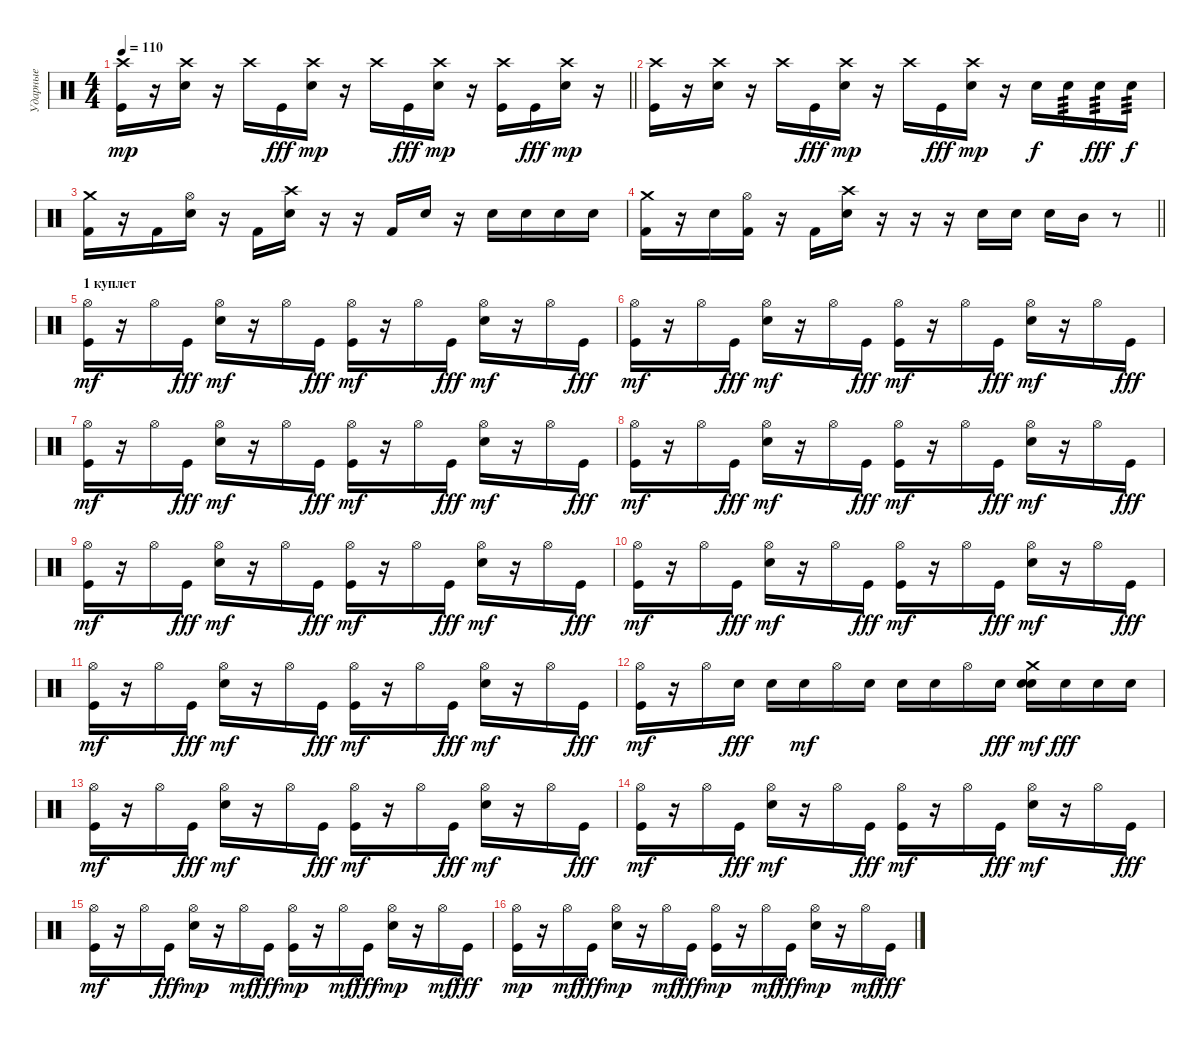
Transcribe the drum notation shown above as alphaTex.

\track ("Ударные" "Ударные") {instrument percussion}
\staff {score}
\articulation defaults
\ts (4 4)
\tempo 110
\clef neutral
\barLineRight lightlight
\ks c
("Kick (hit)" "Crash high (hit)").16{dy mp} r.16 ("Electric Snare (hit)" "Crash high (hit)").16 r.16 "Crash high (hit)".16 "Kick (hit)".16{dy fff} ("Electric Snare (hit)" "Crash high (hit)").16{dy mp} r.16 "Crash high (hit)".16 "Kick (hit)".16{dy fff} ("Electric Snare (hit)" "Crash high (hit)").16{dy mp} r.16 ("Kick (hit)" "Crash high (hit)").16 "Kick (hit)".16{dy fff} ("Electric Snare (hit)" "Crash high (hit)").16{dy mp} r.16 |
("Kick (hit)" "Crash high (hit)").16 r.16 ("Electric Snare (hit)" "Crash high (hit)").16 r.16 "Crash high (hit)".16 "Kick (hit)".16{dy fff} ("Electric Snare (hit)" "Crash high (hit)").16{dy mp} r.16 "Crash high (hit)".16 "Kick (hit)".16{dy fff} ("Electric Snare (hit)" "Crash high (hit)").16{dy mp} r.16 "Electric Snare (hit)".16{dy f} "Electric Snare (hit)".16{tp 3} "Electric Snare (hit)".16{tp 3 dy fff} "Electric Snare (hit)".16{tp 3 dy f} |
("Kick (hit) 2" "Crash medium (hit)").16 r.16 "Kick (hit) 2".16 ("Electric Snare (hit)" "Hi-Hat (open)").16 r.16 "Kick (hit) 2".16 ("Electric Snare (hit)" "Crash high (hit)").16 r.16 r.16 "Kick (hit) 2".16 "Electric Snare (hit)".16 r.16 "Electric Snare (hit)".16 "Electric Snare (hit)".16 "Electric Snare (hit)".16 "Electric Snare (hit)".16 |
\barLineRight lightlight
("Kick (hit) 2" "Crash medium (hit)").16 r.16 "Electric Snare (hit)".16 ("Kick (hit) 2" "Hi-Hat (open)").16 r.16 "Kick (hit) 2".16 ("Electric Snare (hit)" "Crash high (hit)").16 r.16 r.16 r.16 "Electric Snare (hit)".16 "Electric Snare (hit)".16 "Electric Snare (hit)".16 "Mid Tom (hit)".16 r.8 |
\section ("" "1 куплет")
("Kick (hit)" "Hi-Hat (open)").16{dy mf} r.16 "Hi-Hat (open)".16 "Kick (hit)".16{dy fff} ("Electric Snare (hit)" "Hi-Hat (open)").16{dy mf} r.16 "Hi-Hat (open)".16 "Kick (hit)".16{dy fff} ("Kick (hit)" "Hi-Hat (open)").16{dy mf} r.16 "Hi-Hat (open)".16 "Kick (hit)".16{dy fff} ("Electric Snare (hit)" "Hi-Hat (open)").16{dy mf} r.16 "Hi-Hat (open)".16 "Kick (hit)".16{dy fff} |
("Kick (hit)" "Hi-Hat (open)").16{dy mf} r.16 "Hi-Hat (open)".16 "Kick (hit)".16{dy fff} ("Electric Snare (hit)" "Hi-Hat (open)").16{dy mf} r.16 "Hi-Hat (open)".16 "Kick (hit)".16{dy fff} ("Kick (hit)" "Hi-Hat (open)").16{dy mf} r.16 "Hi-Hat (open)".16 "Kick (hit)".16{dy fff} ("Electric Snare (hit)" "Hi-Hat (open)").16{dy mf} r.16 "Hi-Hat (open)".16 "Kick (hit)".16{dy fff} |
("Kick (hit)" "Hi-Hat (open)").16{dy mf} r.16 "Hi-Hat (open)".16 "Kick (hit)".16{dy fff} ("Electric Snare (hit)" "Hi-Hat (open)").16{dy mf} r.16 "Hi-Hat (open)".16 "Kick (hit)".16{dy fff} ("Kick (hit)" "Hi-Hat (open)").16{dy mf} r.16 "Hi-Hat (open)".16 "Kick (hit)".16{dy fff} ("Electric Snare (hit)" "Hi-Hat (open)").16{dy mf} r.16 "Hi-Hat (open)".16 "Kick (hit)".16{dy fff} |
("Kick (hit)" "Hi-Hat (open)").16{dy mf} r.16 "Hi-Hat (open)".16 "Kick (hit)".16{dy fff} ("Electric Snare (hit)" "Hi-Hat (open)").16{dy mf} r.16 "Hi-Hat (open)".16 "Kick (hit)".16{dy fff} ("Kick (hit)" "Hi-Hat (open)").16{dy mf} r.16 "Hi-Hat (open)".16 "Kick (hit)".16{dy fff} ("Electric Snare (hit)" "Hi-Hat (open)").16{dy mf} r.16 "Hi-Hat (open)".16 "Kick (hit)".16{dy fff} |
("Kick (hit)" "Hi-Hat (open)").16{dy mf} r.16 "Hi-Hat (open)".16 "Kick (hit)".16{dy fff} ("Electric Snare (hit)" "Hi-Hat (open)").16{dy mf} r.16 "Hi-Hat (open)".16 "Kick (hit)".16{dy fff} ("Kick (hit)" "Hi-Hat (open)").16{dy mf} r.16 "Hi-Hat (open)".16 "Kick (hit)".16{dy fff} ("Electric Snare (hit)" "Hi-Hat (open)").16{dy mf} r.16 "Hi-Hat (open)".16 "Kick (hit)".16{dy fff} |
("Kick (hit)" "Hi-Hat (open)").16{dy mf} r.16 "Hi-Hat (open)".16 "Kick (hit)".16{dy fff} ("Electric Snare (hit)" "Hi-Hat (open)").16{dy mf} r.16 "Hi-Hat (open)".16 "Kick (hit)".16{dy fff} ("Kick (hit)" "Hi-Hat (open)").16{dy mf} r.16 "Hi-Hat (open)".16 "Kick (hit)".16{dy fff} ("Electric Snare (hit)" "Hi-Hat (open)").16{dy mf} r.16 "Hi-Hat (open)".16 "Kick (hit)".16{dy fff} |
("Kick (hit)" "Hi-Hat (open)").16{dy mf} r.16 "Hi-Hat (open)".16 "Kick (hit)".16{dy fff} ("Electric Snare (hit)" "Hi-Hat (open)").16{dy mf} r.16 "Hi-Hat (open)".16 "Kick (hit)".16{dy fff} ("Kick (hit)" "Hi-Hat (open)").16{dy mf} r.16 "Hi-Hat (open)".16 "Kick (hit)".16{dy fff} ("Electric Snare (hit)" "Hi-Hat (open)").16{dy mf} r.16 "Hi-Hat (open)".16 "Kick (hit)".16{dy fff} |
("Kick (hit)" "Hi-Hat (open)").16{dy mf} r.16 "Hi-Hat (open)".16 "Electric Snare (hit)".16{dy fff} "Electric Snare (hit)".16 "Electric Snare (hit)".16{dy mf} "Hi-Hat (open)".16 "Electric Snare (hit)".16 "Electric Snare (hit)".16 "Electric Snare (hit)".16 "Hi-Hat (open)".16 "Electric Snare (hit)".16{dy fff} ("Electric Snare (hit)" "Electric Snare (hit)" "Crash medium (hit)").16{dy mf} "Electric Snare (hit)".16{dy fff} "Electric Snare (hit)".16 "Electric Snare (hit)".16 |
("Kick (hit)" "Hi-Hat (open)").16{dy mf} r.16 "Hi-Hat (open)".16 "Kick (hit)".16{dy fff} ("Electric Snare (hit)" "Hi-Hat (open)").16{dy mf} r.16 "Hi-Hat (open)".16 "Kick (hit)".16{dy fff} ("Kick (hit)" "Hi-Hat (open)").16{dy mf} r.16 "Hi-Hat (open)".16 "Kick (hit)".16{dy fff} ("Electric Snare (hit)" "Hi-Hat (open)").16{dy mf} r.16 "Hi-Hat (open)".16 "Kick (hit)".16{dy fff} |
("Kick (hit)" "Hi-Hat (open)").16{dy mf} r.16 "Hi-Hat (open)".16 "Kick (hit)".16{dy fff} ("Electric Snare (hit)" "Hi-Hat (open)").16{dy mf} r.16 "Hi-Hat (open)".16 "Kick (hit)".16{dy fff} ("Kick (hit)" "Hi-Hat (open)").16{dy mf} r.16 "Hi-Hat (open)".16 "Kick (hit)".16{dy fff} ("Electric Snare (hit)" "Hi-Hat (open)").16{dy mf} r.16 "Hi-Hat (open)".16 "Kick (hit)".16{dy fff} |
("Kick (hit)" "Hi-Hat (open)").16{dy mf} r.16 "Hi-Hat (open)".16 "Kick (hit)".16{dy fff} ("Electric Snare (hit)" "Hi-Hat (open)").16{dy mp} r.16 "Hi-Hat (open)".16{dy mf} "Kick (hit)".16{dy fff} ("Kick (hit)" "Hi-Hat (open)").16{dy mp} r.16 "Hi-Hat (open)".16{dy mf} "Kick (hit)".16{dy fff} ("Electric Snare (hit)" "Hi-Hat (open)").16{dy mp} r.16 "Hi-Hat (open)".16{dy mf} "Kick (hit)".16{dy fff} |
("Kick (hit)" "Hi-Hat (open)").16{dy mp} r.16 "Hi-Hat (open)".16{dy mf} "Kick (hit)".16{dy fff} ("Electric Snare (hit)" "Hi-Hat (open)").16{dy mp} r.16 "Hi-Hat (open)".16{dy mf} "Kick (hit)".16{dy fff} ("Kick (hit)" "Hi-Hat (open)").16{dy mp} r.16 "Hi-Hat (open)".16{dy mf} "Kick (hit)".16{dy fff} ("Electric Snare (hit)" "Hi-Hat (open)").16{dy mp} r.16 "Hi-Hat (open)".16{dy mf} "Kick (hit)".16{dy fff}
